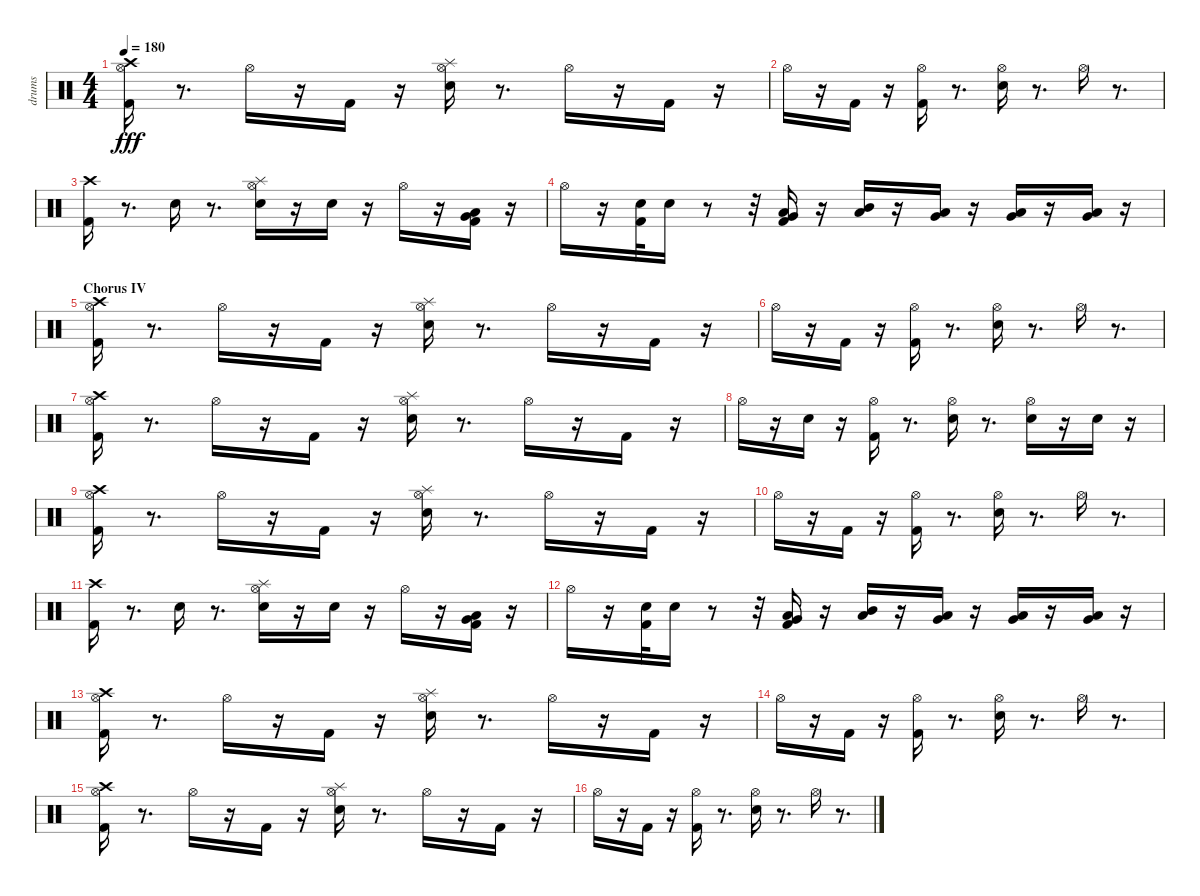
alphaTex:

\track ("drums" "drums") {instrument percussion}
\staff {score}
\articulation defaults
\ts (4 4)
\tempo 180
\clef neutral
\ks c
("Crash high (hit)" "Kick (hit) 2" "Hi-Hat (open)").16{dy fff} r.8{d} "Hi-Hat (open)".16 r.16 "Kick (hit) 2".16 r.16 ("Splash (hit)" "Electric Snare (hit)" "Hi-Hat (open)").16 r.8{d} "Hi-Hat (open)".16 r.16 "Kick (hit) 2".16 r.16 |
"Hi-Hat (open)".16 r.16 "Kick (hit) 2".16 r.16 ("Hi-Hat (open)" "Kick (hit) 2").16 r.8{d} ("Hi-Hat (open)" "Electric Snare (hit)").16 r.8{d} "Hi-Hat (open)".16 r.8{d} |
("Crash high (hit)" "Kick (hit) 2").16 r.8{d} "Electric Snare (hit)".16 r.8{d} ("Splash (hit)" "Hi-Hat (open)" "Electric Snare (hit)").16 r.16 "Electric Snare (hit)".16 r.16 "Hi-Hat (open)".16 r.16 ("Very Low Tom (hit)" "Low Floor Tom (hit)" "Kick (hit) 2").16 r.16 |
"Hi-Hat (open)".16 r.16 ("Electric Snare (hit)" "Kick (hit) 2").32 "Electric Snare (hit)".16 r.8 r.32 ("Low Tom (hit)" "Very Low Tom (hit)" "Kick (hit) 2").16 r.16 ("Low Tom (hit)" "Mid Tom (hit)").16 r.16 ("Very Low Tom (hit)" "Low Tom (hit)").16 r.16 ("Low Tom (hit)" "Very Low Tom (hit)").16 r.16 ("Very Low Tom (hit)" "Low Floor Tom (hit)").16 r.16 |
\section ("" "Chorus IV")
("Crash high (hit)" "Kick (hit) 2" "Hi-Hat (open)").16 r.8{d} "Hi-Hat (open)".16 r.16 "Kick (hit) 2".16 r.16 ("Electric Snare (hit)" "Hi-Hat (open)" "Splash (hit)").16 r.8{d} "Hi-Hat (open)".16 r.16 "Kick (hit) 2".16 r.16 |
"Hi-Hat (open)".16 r.16 "Kick (hit) 2".16 r.16 ("Hi-Hat (open)" "Kick (hit) 2").16 r.8{d} ("Hi-Hat (open)" "Electric Snare (hit)").16 r.8{d} "Hi-Hat (open)".16 r.8{d} |
("Crash high (hit)" "Kick (hit) 2" "Hi-Hat (open)").16 r.8{d} "Hi-Hat (open)".16 r.16 "Kick (hit) 2".16 r.16 ("Splash (hit)" "Electric Snare (hit)" "Hi-Hat (open)").16 r.8{d} "Hi-Hat (open)".16 r.16 "Kick (hit) 2".16 r.16 |
"Hi-Hat (open)".16 r.16 "Electric Snare (hit)".16 r.16 ("Hi-Hat (open)" "Kick (hit) 2").16 r.8{d} ("Hi-Hat (open)" "Electric Snare (hit)").16 r.8{d} ("Hi-Hat (open)" "Electric Snare (hit)").16 r.16 "Electric Snare (hit)".16 r.16 |
("Crash high (hit)" "Kick (hit) 2" "Hi-Hat (open)").16 r.8{d} "Hi-Hat (open)".16 r.16 "Kick (hit) 2".16 r.16 ("Splash (hit)" "Electric Snare (hit)" "Hi-Hat (open)").16 r.8{d} "Hi-Hat (open)".16 r.16 "Kick (hit) 2".16 r.16 |
"Hi-Hat (open)".16 r.16 "Kick (hit) 2".16 r.16 ("Hi-Hat (open)" "Kick (hit) 2").16 r.8{d} ("Hi-Hat (open)" "Electric Snare (hit)").16 r.8{d} "Hi-Hat (open)".16 r.8{d} |
("Crash high (hit)" "Kick (hit) 2").16 r.8{d} "Electric Snare (hit)".16 r.8{d} ("Splash (hit)" "Hi-Hat (open)" "Electric Snare (hit)").16 r.16 "Electric Snare (hit)".16 r.16 "Hi-Hat (open)".16 r.16 ("Very Low Tom (hit)" "Low Floor Tom (hit)" "Kick (hit) 2").16 r.16 |
"Hi-Hat (open)".16 r.16 ("Electric Snare (hit)" "Kick (hit) 2").32 "Electric Snare (hit)".16 r.8 r.32 ("Low Tom (hit)" "Very Low Tom (hit)" "Kick (hit) 2").16 r.16 ("Low Tom (hit)" "Mid Tom (hit)").16 r.16 ("Very Low Tom (hit)" "Low Tom (hit)").16 r.16 ("Low Tom (hit)" "Very Low Tom (hit)").16 r.16 ("Very Low Tom (hit)" "Low Floor Tom (hit)").16 r.16 |
("Crash high (hit)" "Kick (hit) 2" "Hi-Hat (open)").16 r.8{d} "Hi-Hat (open)".16 r.16 "Kick (hit) 2".16 r.16 ("Splash (hit)" "Electric Snare (hit)" "Hi-Hat (open)").16 r.8{d} "Hi-Hat (open)".16 r.16 "Kick (hit) 2".16 r.16 |
"Hi-Hat (open)".16 r.16 "Kick (hit) 2".16 r.16 ("Hi-Hat (open)" "Kick (hit) 2").16 r.8{d} ("Hi-Hat (open)" "Electric Snare (hit)").16 r.8{d} "Hi-Hat (open)".16 r.8{d} |
("Crash high (hit)" "Kick (hit) 2" "Hi-Hat (open)").16 r.8{d} "Hi-Hat (open)".16 r.16 "Kick (hit) 2".16 r.16 ("Splash (hit)" "Electric Snare (hit)" "Hi-Hat (open)").16 r.8{d} "Hi-Hat (open)".16 r.16 "Kick (hit) 2".16 r.16 |
"Hi-Hat (open)".16 r.16 "Kick (hit) 2".16 r.16 ("Hi-Hat (open)" "Kick (hit) 2").16 r.8{d} ("Hi-Hat (open)" "Electric Snare (hit)").16 r.8{d} "Hi-Hat (open)".16 r.8{d}
